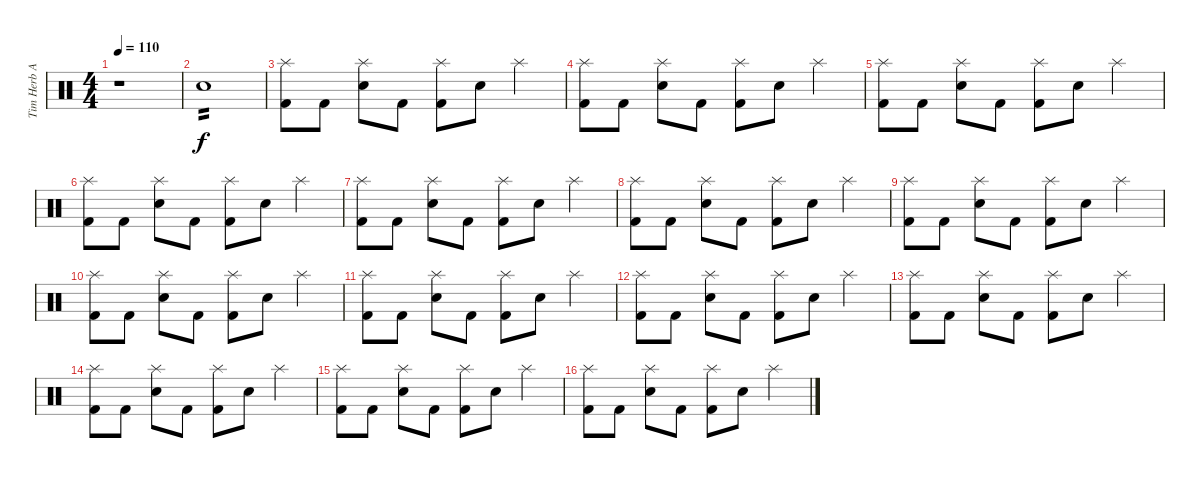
\track ("Tim Herb Alexander" "Tim Herb A") {instrument percussion}
\staff {score}
\articulation defaults
\ts (4 4)
\tempo 110
\clef neutral
\ks c
r.1{dy f} |
"Snare (hit) 2".1{tp 2} |
("Splash (hit)" "Kick (hit) 2").8 "Kick (hit) 2".8 ("Splash (hit)" "Snare (hit) 2").8 "Kick (hit) 2".8 ("Splash (hit)" "Kick (hit) 2").8 "Snare (hit) 2".8 "Splash (hit)".4 |
("Splash (hit)" "Kick (hit) 2").8 "Kick (hit) 2".8 ("Splash (hit)" "Snare (hit) 2").8 "Kick (hit) 2".8 ("Splash (hit)" "Kick (hit) 2").8 "Snare (hit) 2".8 "Splash (hit)".4 |
("Splash (hit)" "Kick (hit) 2").8 "Kick (hit) 2".8 ("Splash (hit)" "Snare (hit) 2").8 "Kick (hit) 2".8 ("Splash (hit)" "Kick (hit) 2").8 "Snare (hit) 2".8 "Splash (hit)".4 |
("Splash (hit)" "Kick (hit) 2").8 "Kick (hit) 2".8 ("Splash (hit)" "Snare (hit) 2").8 "Kick (hit) 2".8 ("Splash (hit)" "Kick (hit) 2").8 "Snare (hit) 2".8 "Splash (hit)".4 |
("Splash (hit)" "Kick (hit) 2").8 "Kick (hit) 2".8 ("Splash (hit)" "Snare (hit) 2").8 "Kick (hit) 2".8 ("Splash (hit)" "Kick (hit) 2").8 "Snare (hit) 2".8 "Splash (hit)".4 |
("Splash (hit)" "Kick (hit) 2").8 "Kick (hit) 2".8 ("Splash (hit)" "Snare (hit) 2").8 "Kick (hit) 2".8 ("Splash (hit)" "Kick (hit) 2").8 "Snare (hit) 2".8 "Splash (hit)".4 |
("Splash (hit)" "Kick (hit) 2").8 "Kick (hit) 2".8 ("Splash (hit)" "Snare (hit) 2").8 "Kick (hit) 2".8 ("Splash (hit)" "Kick (hit) 2").8 "Snare (hit) 2".8 "Splash (hit)".4 |
("Splash (hit)" "Kick (hit) 2").8 "Kick (hit) 2".8 ("Splash (hit)" "Snare (hit) 2").8 "Kick (hit) 2".8 ("Splash (hit)" "Kick (hit) 2").8 "Snare (hit) 2".8 "Splash (hit)".4 |
("Splash (hit)" "Kick (hit) 2").8 "Kick (hit) 2".8 ("Splash (hit)" "Snare (hit) 2").8 "Kick (hit) 2".8 ("Splash (hit)" "Kick (hit) 2").8 "Snare (hit) 2".8 "Splash (hit)".4 |
("Splash (hit)" "Kick (hit) 2").8 "Kick (hit) 2".8 ("Splash (hit)" "Snare (hit) 2").8 "Kick (hit) 2".8 ("Splash (hit)" "Kick (hit) 2").8 "Snare (hit) 2".8 "Splash (hit)".4 |
("Splash (hit)" "Kick (hit) 2").8 "Kick (hit) 2".8 ("Splash (hit)" "Snare (hit) 2").8 "Kick (hit) 2".8 ("Splash (hit)" "Kick (hit) 2").8 "Snare (hit) 2".8 "Splash (hit)".4 |
("Splash (hit)" "Kick (hit) 2").8 "Kick (hit) 2".8 ("Splash (hit)" "Snare (hit) 2").8 "Kick (hit) 2".8 ("Splash (hit)" "Kick (hit) 2").8 "Snare (hit) 2".8 "Splash (hit)".4 |
("Splash (hit)" "Kick (hit) 2").8 "Kick (hit) 2".8 ("Splash (hit)" "Snare (hit) 2").8 "Kick (hit) 2".8 ("Splash (hit)" "Kick (hit) 2").8 "Snare (hit) 2".8 "Splash (hit)".4 |
("Splash (hit)" "Kick (hit) 2").8 "Kick (hit) 2".8 ("Splash (hit)" "Snare (hit) 2").8 "Kick (hit) 2".8 ("Splash (hit)" "Kick (hit) 2").8 "Snare (hit) 2".8 "Splash (hit)".4
